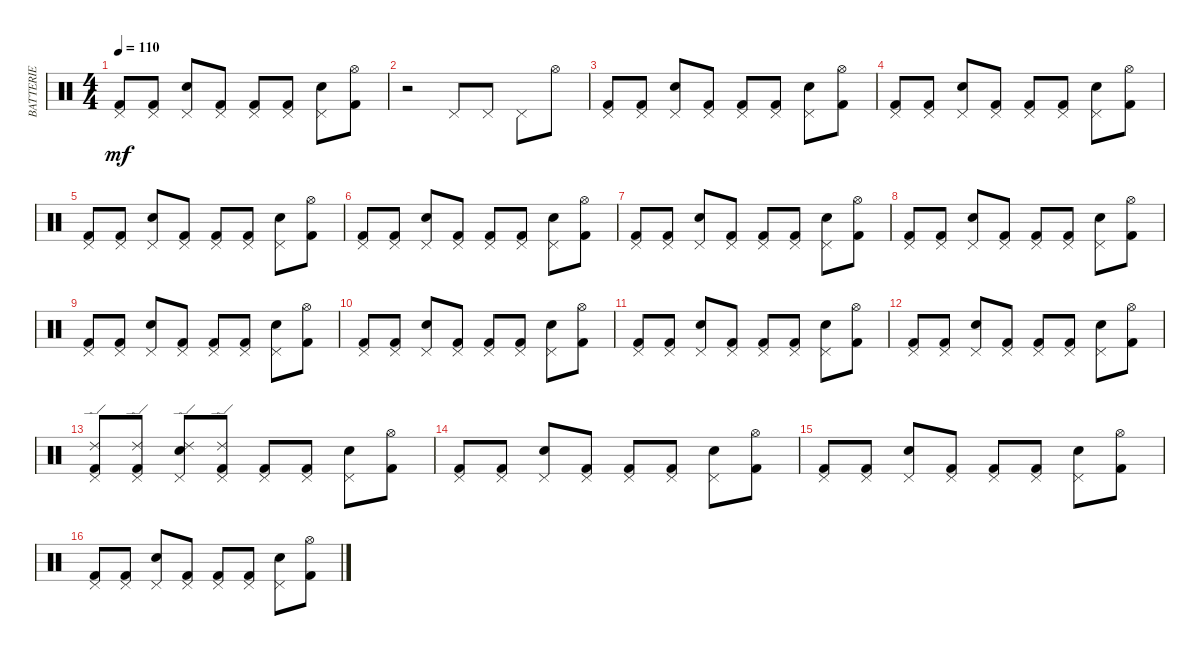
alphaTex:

\track ("BATTERIE" "BATTERIE") {instrument percussion}
\staff {score}
\articulation defaults
\ts (4 4)
\tempo 110
\clef neutral
\ks c
("Kick (hit) 2" "Pedal Hi-Hat (hit)").8{dy mf} ("Pedal Hi-Hat (hit)" "Kick (hit) 2").8 ("Pedal Hi-Hat (hit)" "Electric Snare (hit)").8 ("Pedal Hi-Hat (hit)" "Kick (hit) 2").8 ("Kick (hit) 2" "Pedal Hi-Hat (hit)").8 ("Pedal Hi-Hat (hit)" "Kick (hit) 2").8 ("Pedal Hi-Hat (hit)" "Electric Snare (hit)").8 ("Hi-Hat (open)" "Kick (hit) 2").8 |
r.2 "Pedal Hi-Hat (hit)".8 "Pedal Hi-Hat (hit)".8 "Pedal Hi-Hat (hit)".8 "Hi-Hat (open)".8 |
("Kick (hit) 2" "Pedal Hi-Hat (hit)").8 ("Kick (hit) 2" "Pedal Hi-Hat (hit)").8 ("Pedal Hi-Hat (hit)" "Electric Snare (hit)").8 ("Pedal Hi-Hat (hit)" "Kick (hit) 2").8 ("Kick (hit) 2" "Pedal Hi-Hat (hit)").8 ("Pedal Hi-Hat (hit)" "Kick (hit) 2").8 ("Pedal Hi-Hat (hit)" "Electric Snare (hit)").8 ("Hi-Hat (open)" "Kick (hit) 2").8 |
("Kick (hit) 2" "Pedal Hi-Hat (hit)").8 ("Kick (hit) 2" "Pedal Hi-Hat (hit)").8 ("Pedal Hi-Hat (hit)" "Electric Snare (hit)").8 ("Kick (hit) 2" "Pedal Hi-Hat (hit)").8 ("Kick (hit) 2" "Pedal Hi-Hat (hit)").8 ("Pedal Hi-Hat (hit)" "Kick (hit) 2").8 ("Electric Snare (hit)" "Pedal Hi-Hat (hit)").8 ("Hi-Hat (open)" "Kick (hit) 2").8 |
("Pedal Hi-Hat (hit)" "Kick (hit) 2").8 ("Pedal Hi-Hat (hit)" "Kick (hit) 2").8 ("Electric Snare (hit)" "Pedal Hi-Hat (hit)").8 ("Kick (hit) 2" "Pedal Hi-Hat (hit)").8 ("Pedal Hi-Hat (hit)" "Kick (hit) 2").8 ("Kick (hit) 2" "Pedal Hi-Hat (hit)").8 ("Electric Snare (hit)" "Pedal Hi-Hat (hit)").8 ("Kick (hit) 2" "Hi-Hat (open)").8 |
("Pedal Hi-Hat (hit)" "Kick (hit) 2").8 ("Pedal Hi-Hat (hit)" "Kick (hit) 2").8 ("Electric Snare (hit)" "Pedal Hi-Hat (hit)").8 ("Pedal Hi-Hat (hit)" "Kick (hit) 2").8 ("Pedal Hi-Hat (hit)" "Kick (hit) 2").8 ("Kick (hit) 2" "Pedal Hi-Hat (hit)").8 ("Pedal Hi-Hat (hit)" "Electric Snare (hit)").8 ("Kick (hit) 2" "Hi-Hat (open)").8 |
("Kick (hit) 2" "Pedal Hi-Hat (hit)").8 ("Kick (hit) 2" "Pedal Hi-Hat (hit)").8 ("Pedal Hi-Hat (hit)" "Electric Snare (hit)").8 ("Pedal Hi-Hat (hit)" "Kick (hit) 2").8 ("Kick (hit) 2" "Pedal Hi-Hat (hit)").8 ("Pedal Hi-Hat (hit)" "Kick (hit) 2").8 ("Pedal Hi-Hat (hit)" "Electric Snare (hit)").8 ("Hi-Hat (open)" "Kick (hit) 2").8 |
("Kick (hit) 2" "Pedal Hi-Hat (hit)").8 ("Kick (hit) 2" "Pedal Hi-Hat (hit)").8 ("Pedal Hi-Hat (hit)" "Electric Snare (hit)").8 ("Kick (hit) 2" "Pedal Hi-Hat (hit)").8 ("Kick (hit) 2" "Pedal Hi-Hat (hit)").8 ("Pedal Hi-Hat (hit)" "Kick (hit) 2").8 ("Electric Snare (hit)" "Pedal Hi-Hat (hit)").8 ("Hi-Hat (open)" "Kick (hit) 2").8 |
("Kick (hit) 2" "Pedal Hi-Hat (hit)").8 ("Kick (hit) 2" "Pedal Hi-Hat (hit)").8 ("Pedal Hi-Hat (hit)" "Electric Snare (hit)").8 ("Pedal Hi-Hat (hit)" "Kick (hit) 2").8 ("Kick (hit) 2" "Pedal Hi-Hat (hit)").8 ("Pedal Hi-Hat (hit)" "Kick (hit) 2").8 ("Pedal Hi-Hat (hit)" "Electric Snare (hit)").8 ("Hi-Hat (open)" "Kick (hit) 2").8 |
("Kick (hit) 2" "Pedal Hi-Hat (hit)").8 ("Kick (hit) 2" "Pedal Hi-Hat (hit)").8 ("Pedal Hi-Hat (hit)" "Electric Snare (hit)").8 ("Kick (hit) 2" "Pedal Hi-Hat (hit)").8 ("Kick (hit) 2" "Pedal Hi-Hat (hit)").8 ("Pedal Hi-Hat (hit)" "Kick (hit) 2").8 ("Electric Snare (hit)" "Pedal Hi-Hat (hit)").8 ("Hi-Hat (open)" "Kick (hit) 2").8 |
("Kick (hit) 2" "Pedal Hi-Hat (hit)").8 ("Kick (hit) 2" "Pedal Hi-Hat (hit)").8 ("Pedal Hi-Hat (hit)" "Electric Snare (hit)").8 ("Pedal Hi-Hat (hit)" "Kick (hit) 2").8 ("Kick (hit) 2" "Pedal Hi-Hat (hit)").8 ("Pedal Hi-Hat (hit)" "Kick (hit) 2").8 ("Pedal Hi-Hat (hit)" "Electric Snare (hit)").8 ("Hi-Hat (open)" "Kick (hit) 2").8 |
("Kick (hit) 2" "Pedal Hi-Hat (hit)").8 ("Kick (hit) 2" "Pedal Hi-Hat (hit)").8 ("Pedal Hi-Hat (hit)" "Electric Snare (hit)").8 ("Kick (hit) 2" "Pedal Hi-Hat (hit)").8 ("Kick (hit) 2" "Pedal Hi-Hat (hit)").8 ("Pedal Hi-Hat (hit)" "Kick (hit) 2").8 ("Electric Snare (hit)" "Pedal Hi-Hat (hit)").8 ("Hi-Hat (open)" "Kick (hit) 2").8 |
("Ride (edge) 2" "Pedal Hi-Hat (hit)" "Kick (hit) 2").8 ("Ride (edge) 2" "Pedal Hi-Hat (hit)" "Kick (hit) 2").8 ("Ride (edge) 2" "Electric Snare (hit)" "Pedal Hi-Hat (hit)").8 ("Ride (edge) 2" "Kick (hit) 2" "Pedal Hi-Hat (hit)").8 ("Pedal Hi-Hat (hit)" "Kick (hit) 2").8 ("Kick (hit) 2" "Pedal Hi-Hat (hit)").8 ("Electric Snare (hit)" "Pedal Hi-Hat (hit)").8 ("Kick (hit) 2" "Hi-Hat (open)").8 |
("Pedal Hi-Hat (hit)" "Kick (hit) 2").8 ("Pedal Hi-Hat (hit)" "Kick (hit) 2").8 ("Electric Snare (hit)" "Pedal Hi-Hat (hit)").8 ("Pedal Hi-Hat (hit)" "Kick (hit) 2").8 ("Pedal Hi-Hat (hit)" "Kick (hit) 2").8 ("Kick (hit) 2" "Pedal Hi-Hat (hit)").8 ("Pedal Hi-Hat (hit)" "Electric Snare (hit)").8 ("Kick (hit) 2" "Hi-Hat (open)").8 |
("Pedal Hi-Hat (hit)" "Kick (hit) 2").8 ("Pedal Hi-Hat (hit)" "Kick (hit) 2").8 ("Electric Snare (hit)" "Pedal Hi-Hat (hit)").8 ("Kick (hit) 2" "Pedal Hi-Hat (hit)").8 ("Pedal Hi-Hat (hit)" "Kick (hit) 2").8 ("Kick (hit) 2" "Pedal Hi-Hat (hit)").8 ("Electric Snare (hit)" "Pedal Hi-Hat (hit)").8 ("Kick (hit) 2" "Hi-Hat (open)").8 |
("Pedal Hi-Hat (hit)" "Kick (hit) 2").8 ("Pedal Hi-Hat (hit)" "Kick (hit) 2").8 ("Electric Snare (hit)" "Pedal Hi-Hat (hit)").8 ("Pedal Hi-Hat (hit)" "Kick (hit) 2").8 ("Pedal Hi-Hat (hit)" "Kick (hit) 2").8 ("Kick (hit) 2" "Pedal Hi-Hat (hit)").8 ("Pedal Hi-Hat (hit)" "Electric Snare (hit)").8 ("Kick (hit) 2" "Hi-Hat (open)").8
